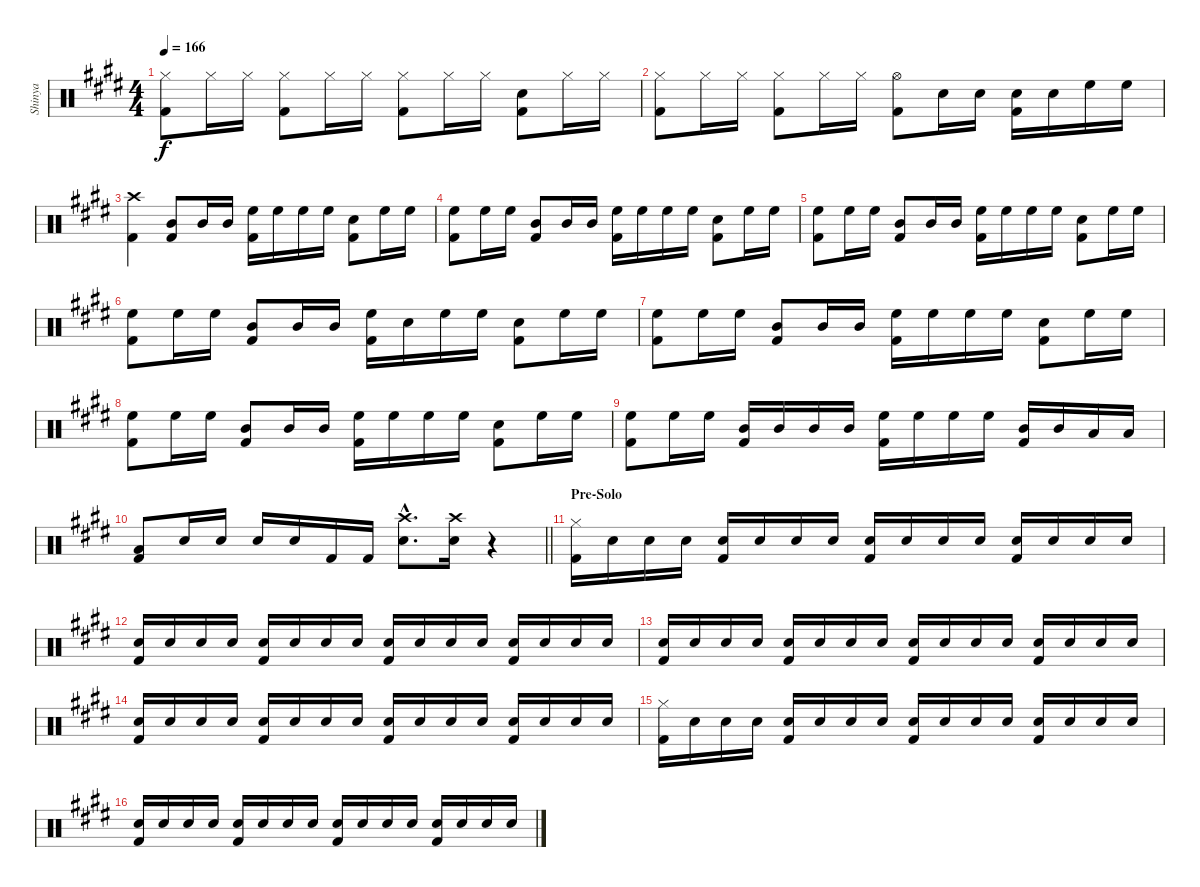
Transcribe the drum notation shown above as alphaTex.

\track ("Shinya" "Shinya") {instrument percussion}
\staff {score}
\articulation defaults
\ts (4 4)
\tempo 166
\clef neutral
\ks e
("Hi-Hat (closed)" "Kick (hit) 2").8{dy f} "Hi-Hat (closed)".16 "Hi-Hat (closed)".16 ("Hi-Hat (closed)" "Kick (hit) 2").8 "Hi-Hat (closed)".16 "Hi-Hat (closed)".16 ("Hi-Hat (closed)" "Kick (hit) 2").8 "Hi-Hat (closed)".16 "Hi-Hat (closed)".16 ("Snare (hit) 2" "Kick (hit) 2").8 "Hi-Hat (closed)".16 "Hi-Hat (closed)".16 |
("Hi-Hat (closed)" "Kick (hit) 2").8 "Hi-Hat (closed)".16 "Hi-Hat (closed)".16 ("Hi-Hat (closed)" "Kick (hit) 2").8 "Hi-Hat (closed)".16 "Hi-Hat (closed)".16 ("Hi-Hat (open)" "Kick (hit) 2").8 "Snare (hit) 2".16 "Snare (hit) 2".16 ("Snare (hit) 2" "Kick (hit) 2").16 "Snare (hit) 2".16 "High Floor Tom (hit)".16 "High Floor Tom (hit)".16 |
("Crash high (hit)" "Kick (hit) 2").4 ("Mid Tom (hit)" "Kick (hit) 2").8 "Mid Tom (hit)".16 "Mid Tom (hit)".16 ("High Floor Tom (hit)" "Kick (hit) 2").16 "High Floor Tom (hit)".16 "High Floor Tom (hit)".16 "High Floor Tom (hit)".16 ("Snare (hit) 2" "Kick (hit) 2").8 "High Floor Tom (hit)".16 "High Floor Tom (hit)".16 |
("High Floor Tom (hit)" "Kick (hit) 2").8 "High Floor Tom (hit)".16 "High Floor Tom (hit)".16 ("Mid Tom (hit)" "Kick (hit) 2").8 "Mid Tom (hit)".16 "Mid Tom (hit)".16 ("High Floor Tom (hit)" "Kick (hit) 2").16 "High Floor Tom (hit)".16 "High Floor Tom (hit)".16 "High Floor Tom (hit)".16 ("Snare (hit) 2" "Kick (hit) 2").8 "High Floor Tom (hit)".16 "High Floor Tom (hit)".16 |
("High Floor Tom (hit)" "Kick (hit) 2").8 "High Floor Tom (hit)".16 "High Floor Tom (hit)".16 ("Mid Tom (hit)" "Kick (hit) 2").8 "Mid Tom (hit)".16 "Mid Tom (hit)".16 ("High Floor Tom (hit)" "Kick (hit) 2").16 "High Floor Tom (hit)".16 "High Floor Tom (hit)".16 "High Floor Tom (hit)".16 ("Snare (hit) 2" "Kick (hit) 2").8 "High Floor Tom (hit)".16 "High Floor Tom (hit)".16 |
("High Floor Tom (hit)" "Kick (hit) 2").8 "High Floor Tom (hit)".16 "High Floor Tom (hit)".16 ("Mid Tom (hit)" "Kick (hit) 2").8 "Mid Tom (hit)".16 "Mid Tom (hit)".16 ("High Floor Tom (hit)" "Kick (hit) 2").16 "Snare (hit) 2".16 "High Floor Tom (hit)".16 "High Floor Tom (hit)".16 ("Snare (hit) 2" "Kick (hit) 2").8 "High Floor Tom (hit)".16 "High Floor Tom (hit)".16 |
("High Floor Tom (hit)" "Kick (hit) 2").8 "High Floor Tom (hit)".16 "High Floor Tom (hit)".16 ("Mid Tom (hit)" "Kick (hit) 2").8 "Mid Tom (hit)".16 "Mid Tom (hit)".16 ("High Floor Tom (hit)" "Kick (hit) 2").16 "High Floor Tom (hit)".16 "High Floor Tom (hit)".16 "High Floor Tom (hit)".16 ("Snare (hit) 2" "Kick (hit) 2").8 "High Floor Tom (hit)".16 "High Floor Tom (hit)".16 |
("High Floor Tom (hit)" "Kick (hit) 2").8 "High Floor Tom (hit)".16 "High Floor Tom (hit)".16 ("Mid Tom (hit)" "Kick (hit) 2").8 "Mid Tom (hit)".16 "Mid Tom (hit)".16 ("High Floor Tom (hit)" "Kick (hit) 2").16 "High Floor Tom (hit)".16 "High Floor Tom (hit)".16 "High Floor Tom (hit)".16 ("Snare (hit) 2" "Kick (hit) 2").8 "High Floor Tom (hit)".16 "High Floor Tom (hit)".16 |
("High Floor Tom (hit)" "Kick (hit) 2").8 "High Floor Tom (hit)".16 "High Floor Tom (hit)".16 ("Mid Tom (hit)" "Kick (hit) 2").16 "Mid Tom (hit)".16 "Mid Tom (hit)".16 "Mid Tom (hit)".16 ("High Floor Tom (hit)" "Kick (hit) 2").16 "High Floor Tom (hit)".16 "High Floor Tom (hit)".16 "High Floor Tom (hit)".16 ("Mid Tom (hit)" "Kick (hit) 2").16 "Mid Tom (hit)".16 "Low Tom (hit)".16 "Low Floor Tom (hit)".16 |
\barLineRight lightlight
("Low Floor Tom (hit)" "Kick (hit) 2").8 "Snare (hit) 2".16 "Snare (hit) 2".16 "Snare (hit) 2".16 "Snare (hit) 2".16 "Kick (hit) 2".16 "Kick (hit) 2".16 ("Crash high (hit)"{hac} "Snare (hit) 2"{hac}).8{d} ("Crash high (hit)" "Snare (hit) 2").16 r.4 |
\section ("" "Pre-Solo")
("Hi-Hat (closed)" "Kick (hit) 2").16 "Snare (hit) 2".16 "Snare (hit) 2".16 "Snare (hit) 2".16 ("Snare (hit) 2" "Kick (hit) 2").16 "Snare (hit) 2".16 "Snare (hit) 2".16 "Snare (hit) 2".16 ("Snare (hit) 2" "Kick (hit) 2").16 "Snare (hit) 2".16 "Snare (hit) 2".16 "Snare (hit) 2".16 ("Snare (hit) 2" "Kick (hit) 2").16 "Snare (hit) 2".16 "Snare (hit) 2".16 "Snare (hit) 2".16 |
("Snare (hit) 2" "Kick (hit) 2").16 "Snare (hit) 2".16 "Snare (hit) 2".16 "Snare (hit) 2".16 ("Snare (hit) 2" "Kick (hit) 2").16 "Snare (hit) 2".16 "Snare (hit) 2".16 "Snare (hit) 2".16 ("Snare (hit) 2" "Kick (hit) 2").16 "Snare (hit) 2".16 "Snare (hit) 2".16 "Snare (hit) 2".16 ("Snare (hit) 2" "Kick (hit) 2").16 "Snare (hit) 2".16 "Snare (hit) 2".16 "Snare (hit) 2".16 |
("Snare (hit) 2" "Kick (hit) 2").16 "Snare (hit) 2".16 "Snare (hit) 2".16 "Snare (hit) 2".16 ("Snare (hit) 2" "Kick (hit) 2").16 "Snare (hit) 2".16 "Snare (hit) 2".16 "Snare (hit) 2".16 ("Snare (hit) 2" "Kick (hit) 2").16 "Snare (hit) 2".16 "Snare (hit) 2".16 "Snare (hit) 2".16 ("Snare (hit) 2" "Kick (hit) 2").16 "Snare (hit) 2".16 "Snare (hit) 2".16 "Snare (hit) 2".16 |
("Snare (hit) 2" "Kick (hit) 2").16 "Snare (hit) 2".16 "Snare (hit) 2".16 "Snare (hit) 2".16 ("Snare (hit) 2" "Kick (hit) 2").16 "Snare (hit) 2".16 "Snare (hit) 2".16 "Snare (hit) 2".16 ("Snare (hit) 2" "Kick (hit) 2").16 "Snare (hit) 2".16 "Snare (hit) 2".16 "Snare (hit) 2".16 ("Snare (hit) 2" "Kick (hit) 2").16 "Snare (hit) 2".16 "Snare (hit) 2".16 "Snare (hit) 2".16 |
("Hi-Hat (closed)" "Kick (hit) 2").16 "Snare (hit) 2".16 "Snare (hit) 2".16 "Snare (hit) 2".16 ("Snare (hit) 2" "Kick (hit) 2").16 "Snare (hit) 2".16 "Snare (hit) 2".16 "Snare (hit) 2".16 ("Snare (hit) 2" "Kick (hit) 2").16 "Snare (hit) 2".16 "Snare (hit) 2".16 "Snare (hit) 2".16 ("Snare (hit) 2" "Kick (hit) 2").16 "Snare (hit) 2".16 "Snare (hit) 2".16 "Snare (hit) 2".16 |
("Snare (hit) 2" "Kick (hit) 2").16 "Snare (hit) 2".16 "Snare (hit) 2".16 "Snare (hit) 2".16 ("Snare (hit) 2" "Kick (hit) 2").16 "Snare (hit) 2".16 "Snare (hit) 2".16 "Snare (hit) 2".16 ("Snare (hit) 2" "Kick (hit) 2").16 "Snare (hit) 2".16 "Snare (hit) 2".16 "Snare (hit) 2".16 ("Snare (hit) 2" "Kick (hit) 2").16 "Snare (hit) 2".16 "Snare (hit) 2".16 "Snare (hit) 2".16
